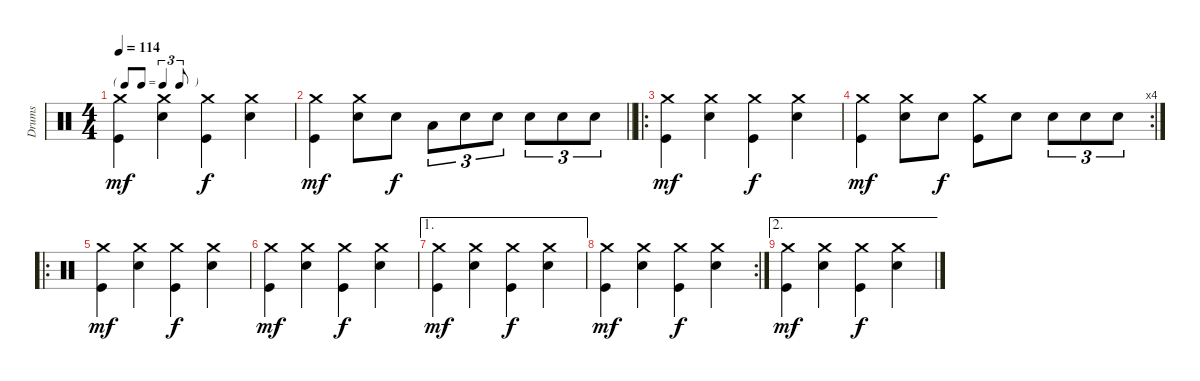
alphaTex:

\track ("Drums" "Drums") {instrument percussion}
\staff {score}
\articulation defaults
\ts (4 4)
\tf triplet8th
\tempo 114
\clef neutral
\ks c
("Crash medium (hit)" "Kick (hit)").4{dy mf beam merge} ("Crash medium (hit)" "Snare (hit) 2").4 ("Crash medium (hit)" "Kick (hit)").4{dy f beam merge} ("Crash medium (hit)" "Snare (hit) 2").4 |
\barLineRight lightlight
("Crash medium (hit)" "Kick (hit)").4{dy mf beam merge} ("Crash medium (hit)" "Snare (hit) 2").8 "Snare (hit) 2".8{dy f} "Low Tom (hit)".8{tu (3 2)} "Snare (hit) 2".8{tu (3 2)} "Snare (hit) 2".8{tu (3 2)} "Snare (hit) 2".8{tu (3 2)} "Snare (hit) 2".8{tu (3 2)} "Snare (hit) 2".8{tu (3 2)} |
\ro
("Crash medium (hit)" "Kick (hit)").4{dy mf beam merge} ("Crash medium (hit)" "Snare (hit) 2").4 ("Crash medium (hit)" "Kick (hit)").4{dy f beam merge} ("Crash medium (hit)" "Snare (hit) 2").4 |
\rc 4
("Crash medium (hit)" "Kick (hit)").4{dy mf beam merge} ("Crash medium (hit)" "Snare (hit) 2").8 "Snare (hit) 2".8{dy f} ("Crash medium (hit)" "Kick (hit)").8 "Snare (hit) 2".8 "Snare (hit) 2".8{tu (3 2)} "Snare (hit) 2".8{tu (3 2)} "Snare (hit) 2".8{tu (3 2)} |
\ro
("Crash medium (hit)" "Kick (hit)").4{dy mf beam merge} ("Crash medium (hit)" "Snare (hit) 2").4 ("Crash medium (hit)" "Kick (hit)").4{dy f beam merge} ("Crash medium (hit)" "Snare (hit) 2").4 |
("Crash medium (hit)" "Kick (hit)").4{dy mf beam merge} ("Crash medium (hit)" "Snare (hit) 2").4 ("Crash medium (hit)" "Kick (hit)").4{dy f beam merge} ("Crash medium (hit)" "Snare (hit) 2").4 |
\ae 1
("Crash medium (hit)" "Kick (hit)").4{dy mf beam merge} ("Crash medium (hit)" "Snare (hit) 2").4 ("Crash medium (hit)" "Kick (hit)").4{dy f beam merge} ("Crash medium (hit)" "Snare (hit) 2").4 |
\rc 2
("Crash medium (hit)" "Kick (hit)").4{dy mf beam merge} ("Crash medium (hit)" "Snare (hit) 2").4 ("Crash medium (hit)" "Kick (hit)").4{dy f beam merge} ("Crash medium (hit)" "Snare (hit) 2").4 |
\ae 2
("Crash medium (hit)" "Kick (hit)").4{dy mf beam merge} ("Crash medium (hit)" "Snare (hit) 2").4 ("Crash medium (hit)" "Kick (hit)").4{dy f beam merge} ("Crash medium (hit)" "Snare (hit) 2").4
